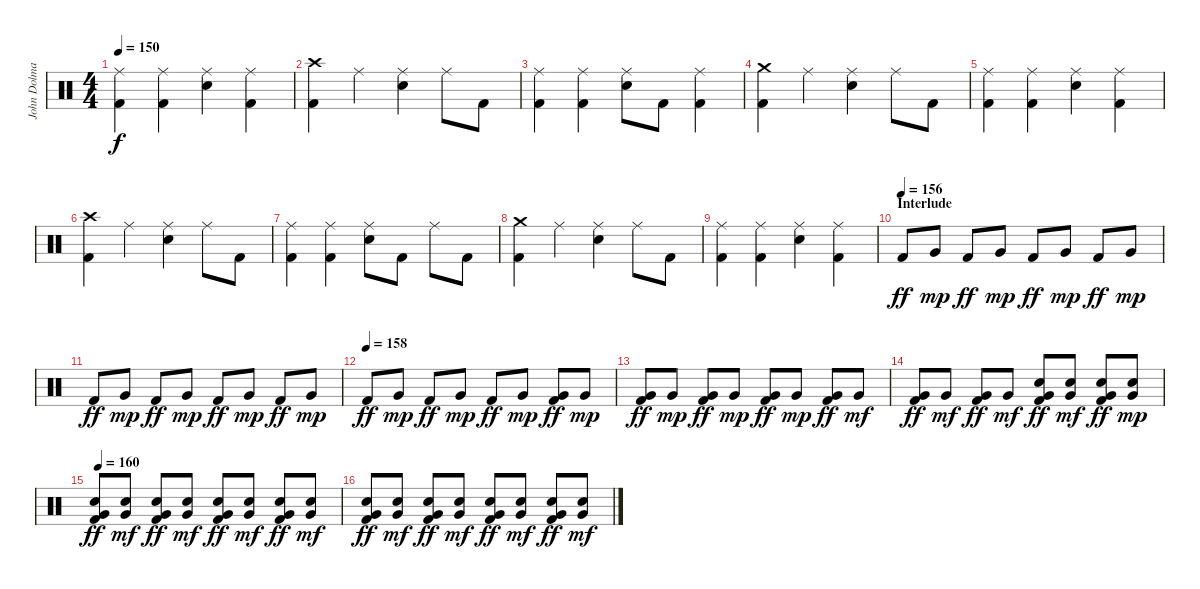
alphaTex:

\track ("John Dolmayan" "John Dolma") {instrument percussion}
\staff {score}
\articulation defaults
\ts (4 4)
\tempo 150
\clef neutral
\ks c
("Ride (middle)" "Kick (hit) 2").4{dy f} ("Ride (middle)" "Kick (hit) 2").4 ("Ride (middle)" "Electric Snare (hit)").4 ("Ride (middle)" "Kick (hit) 2").4 |
("Crash high (hit)" "Kick (hit) 2").4 "Ride (middle)".4 ("Ride (middle)" "Electric Snare (hit)").4 "Ride (middle)".8 "Kick (hit) 2".8 |
("Ride (middle)" "Kick (hit) 2").4 ("Ride (middle)" "Kick (hit) 2").4 ("Ride (middle)" "Electric Snare (hit)").8 "Kick (hit) 2".8 ("Ride (middle)" "Kick (hit) 2").4 |
("Crash medium (hit)" "Kick (hit) 2").4 "Ride (middle)".4 ("Ride (middle)" "Electric Snare (hit)").4 "Ride (middle)".8 "Kick (hit) 2".8 |
("Ride (middle)" "Kick (hit) 2").4 ("Ride (middle)" "Kick (hit) 2").4 ("Ride (middle)" "Electric Snare (hit)").4 ("Ride (middle)" "Kick (hit) 2").4 |
("Crash high (hit)" "Kick (hit) 2").4 "Ride (middle)".4 ("Ride (middle)" "Electric Snare (hit)").4 "Ride (middle)".8 "Kick (hit) 2".8 |
("Ride (middle)" "Kick (hit) 2").4 ("Ride (middle)" "Kick (hit) 2").4 ("Ride (middle)" "Electric Snare (hit)").8 "Kick (hit) 2".8 "Ride (middle)".8 "Kick (hit) 2".8 |
("Crash medium (hit)" "Kick (hit) 2").4 "Ride (middle)".4 ("Ride (middle)" "Electric Snare (hit)").4 "Ride (middle)".8 "Kick (hit) 2".8 |
("Ride (middle)" "Kick (hit) 2").4 ("Ride (middle)" "Kick (hit) 2").4 ("Ride (middle)" "Electric Snare (hit)").4 ("Ride (middle)" "Kick (hit) 2").4 |
\section ("" "Interlude")
\tempo (156)
"Kick (hit) 2".8{dy ff} "Very Low Tom (hit)".8{dy mp} "Kick (hit) 2".8{dy ff} "Very Low Tom (hit)".8{dy mp} "Kick (hit) 2".8{dy ff} "Very Low Tom (hit)".8{dy mp} "Kick (hit) 2".8{dy ff} "Very Low Tom (hit)".8{dy mp} |
"Kick (hit) 2".8{dy ff} "Very Low Tom (hit)".8{dy mp} "Kick (hit) 2".8{dy ff} "Very Low Tom (hit)".8{dy mp} "Kick (hit) 2".8{dy ff} "Very Low Tom (hit)".8{dy mp} "Kick (hit) 2".8{dy ff} "Very Low Tom (hit)".8{dy mp} |
\tempo (158)
"Kick (hit) 2".8{dy ff} "Very Low Tom (hit)".8{dy mp} "Kick (hit) 2".8{dy ff} "Very Low Tom (hit)".8{dy mp} "Kick (hit) 2".8{dy ff} "Very Low Tom (hit)".8{dy mp} ("Very Low Tom (hit)" "Kick (hit) 2").8{dy ff} "Very Low Tom (hit)".8{dy mp} |
("Very Low Tom (hit)" "Kick (hit) 2").8{dy ff} "Very Low Tom (hit)".8{dy mp} ("Very Low Tom (hit)" "Kick (hit) 2").8{dy ff} "Very Low Tom (hit)".8{dy mp} ("Very Low Tom (hit)" "Kick (hit) 2").8{dy ff} "Very Low Tom (hit)".8{dy mp} ("Very Low Tom (hit)" "Kick (hit) 2").8{dy ff} "Very Low Tom (hit)".8{dy mf} |
("Very Low Tom (hit)" "Kick (hit) 2").8{dy ff} "Very Low Tom (hit)".8{dy mf} ("Very Low Tom (hit)" "Kick (hit) 2").8{dy ff} "Very Low Tom (hit)".8{dy mf} ("Electric Snare (hit)" "Very Low Tom (hit)" "Kick (hit) 2").8{dy ff} ("Electric Snare (hit)" "Very Low Tom (hit)").8{dy mf} ("Electric Snare (hit)" "Very Low Tom (hit)" "Kick (hit) 2").8{dy ff} ("Electric Snare (hit)" "Very Low Tom (hit)").8{dy mp} |
\tempo 160
("Electric Snare (hit)" "Very Low Tom (hit)" "Kick (hit) 2").8{dy ff} ("Electric Snare (hit)" "Very Low Tom (hit)").8{dy mf} ("Electric Snare (hit)" "Very Low Tom (hit)" "Kick (hit) 2").8{dy ff} ("Electric Snare (hit)" "Very Low Tom (hit)").8{dy mf} ("Electric Snare (hit)" "Very Low Tom (hit)" "Kick (hit) 2").8{dy ff} ("Electric Snare (hit)" "Very Low Tom (hit)").8{dy mf} ("Electric Snare (hit)" "Very Low Tom (hit)" "Kick (hit) 2").8{dy ff} ("Electric Snare (hit)" "Very Low Tom (hit)").8{dy mf} |
("Electric Snare (hit)" "Very Low Tom (hit)" "Kick (hit) 2").8{dy ff} ("Electric Snare (hit)" "Very Low Tom (hit)").8{dy mf} ("Electric Snare (hit)" "Very Low Tom (hit)" "Kick (hit) 2").8{dy ff} ("Electric Snare (hit)" "Very Low Tom (hit)").8{dy mf} ("Electric Snare (hit)" "Very Low Tom (hit)" "Kick (hit) 2").8{dy ff} ("Electric Snare (hit)" "Very Low Tom (hit)").8{dy mf} ("Electric Snare (hit)" "Very Low Tom (hit)" "Kick (hit) 2").8{dy ff} ("Electric Snare (hit)" "Very Low Tom (hit)").8{dy mf}
